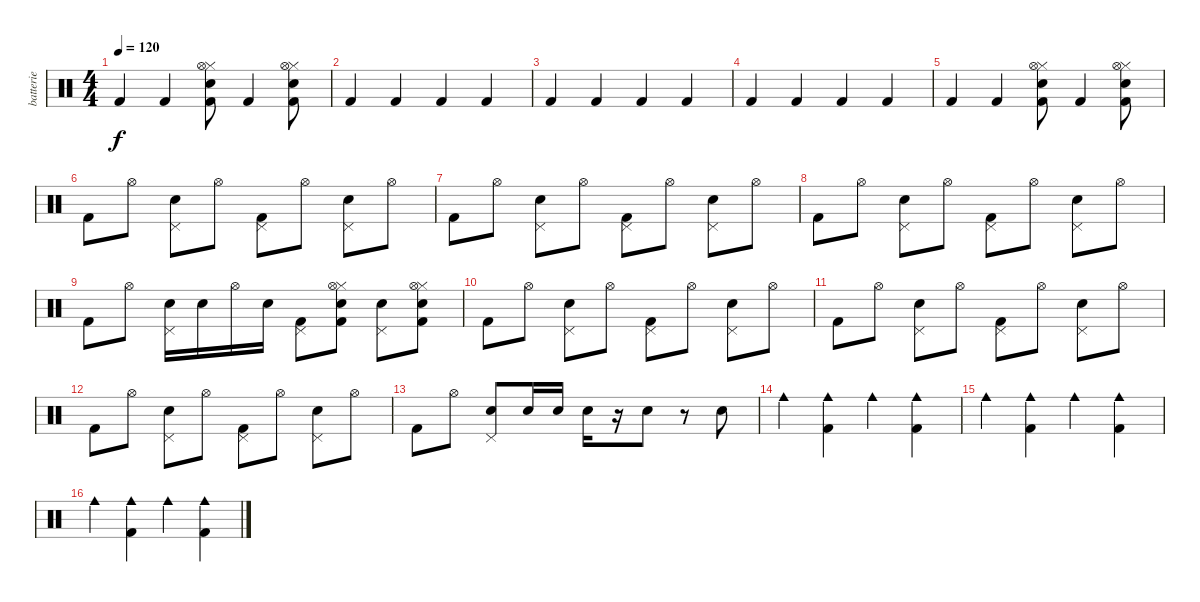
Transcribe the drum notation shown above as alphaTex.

\track ("batterie" "batterie") {instrument percussion}
\staff {score}
\articulation defaults
\ts (4 4)
\tempo 120
\clef neutral
\ks c "Kick (hit) 2".4{dy f} "Kick (hit) 2".4
("Kick (hit) 2" "Electric Snare (hit)" "Hi-Hat (closed)" "Hi-Hat (open)").8 "Kick (hit) 2".4 ("Kick (hit) 2" "Electric Snare (hit)" "Hi-Hat (closed)" "Hi-Hat (open)").8 |
"Kick (hit) 2".4 "Kick (hit) 2".4 "Kick (hit) 2".4 "Kick (hit) 2".4 |
"Kick (hit) 2".4 "Kick (hit) 2".4 "Kick (hit) 2".4 "Kick (hit) 2".4 |
"Kick (hit) 2".4 "Kick (hit) 2".4 "Kick (hit) 2".4 "Kick (hit) 2".4 |
"Kick (hit) 2".4 "Kick (hit) 2".4 ("Kick (hit) 2" "Electric Snare (hit)" "Hi-Hat (closed)" "Hi-Hat (open)").8 "Kick (hit) 2".4 ("Kick (hit) 2" "Electric Snare (hit)" "Hi-Hat (closed)" "Hi-Hat (open)").8 |
"Kick (hit) 2".8 "Hi-Hat (open)".8 ("Electric Snare (hit)" "Pedal Hi-Hat (hit)").8 "Hi-Hat (open)".8 ("Kick (hit) 2" "Pedal Hi-Hat (hit)").8 "Hi-Hat (open)".8 ("Electric Snare (hit)" "Pedal Hi-Hat (hit)").8 "Hi-Hat (open)".8 |
"Kick (hit) 2".8 "Hi-Hat (open)".8 ("Electric Snare (hit)" "Pedal Hi-Hat (hit)").8 "Hi-Hat (open)".8 ("Kick (hit) 2" "Pedal Hi-Hat (hit)").8 "Hi-Hat (open)".8 ("Electric Snare (hit)" "Pedal Hi-Hat (hit)").8 "Hi-Hat (open)".8 |
"Kick (hit) 2".8 "Hi-Hat (open)".8 ("Electric Snare (hit)" "Pedal Hi-Hat (hit)").8 "Hi-Hat (open)".8 ("Kick (hit) 2" "Pedal Hi-Hat (hit)").8 "Hi-Hat (open)".8 ("Electric Snare (hit)" "Pedal Hi-Hat (hit)").8 "Hi-Hat (open)".8 |
"Kick (hit) 2".8 "Hi-Hat (open)".8 ("Electric Snare (hit)" "Pedal Hi-Hat (hit)").16 "Electric Snare (hit)".16 "Hi-Hat (open)".16 "Electric Snare (hit)".16 ("Kick (hit) 2" "Pedal Hi-Hat (hit)").8 ("Kick (hit) 2" "Electric Snare (hit)" "Hi-Hat (closed)" "Hi-Hat (open)").8 ("Electric Snare (hit)" "Pedal Hi-Hat (hit)").8 ("Kick (hit) 2" "Electric Snare (hit)" "Hi-Hat (closed)" "Hi-Hat (open)").8 |
"Kick (hit) 2".8 "Hi-Hat (open)".8 ("Electric Snare (hit)" "Pedal Hi-Hat (hit)").8 "Hi-Hat (open)".8 ("Kick (hit) 2" "Pedal Hi-Hat (hit)").8 "Hi-Hat (open)".8 ("Electric Snare (hit)" "Pedal Hi-Hat (hit)").8 "Hi-Hat (open)".8 |
"Kick (hit) 2".8 "Hi-Hat (open)".8 ("Electric Snare (hit)" "Pedal Hi-Hat (hit)").8 "Hi-Hat (open)".8 ("Kick (hit) 2" "Pedal Hi-Hat (hit)").8 "Hi-Hat (open)".8 ("Electric Snare (hit)" "Pedal Hi-Hat (hit)").8 "Hi-Hat (open)".8 |
"Kick (hit) 2".8 "Hi-Hat (open)".8 ("Electric Snare (hit)" "Pedal Hi-Hat (hit)").8 "Hi-Hat (open)".8 ("Kick (hit) 2" "Pedal Hi-Hat (hit)").8 "Hi-Hat (open)".8 ("Electric Snare (hit)" "Pedal Hi-Hat (hit)").8 "Hi-Hat (open)".8 |
"Kick (hit) 2".8 "Hi-Hat (open)".8 ("Electric Snare (hit)" "Pedal Hi-Hat (hit)").8 "Electric Snare (hit)".16 "Electric Snare (hit)".16 "Electric Snare (hit)".16 r.16 "Electric Snare (hit)".8 r.8 "Electric Snare (hit)".8 |
"Cowbell medium (hit)".4 ("Kick (hit) 2" "Cowbell medium (hit)").4 "Cowbell medium (hit)".4 ("Kick (hit) 2" "Cowbell medium (hit)").4 |
"Cowbell medium (hit)".4 ("Kick (hit) 2" "Cowbell medium (hit)").4 "Cowbell medium (hit)".4 ("Kick (hit) 2" "Cowbell medium (hit)").4 |
"Cowbell medium (hit)".4 ("Kick (hit) 2" "Cowbell medium (hit)").4 "Cowbell medium (hit)".4 ("Kick (hit) 2" "Cowbell medium (hit)").4
